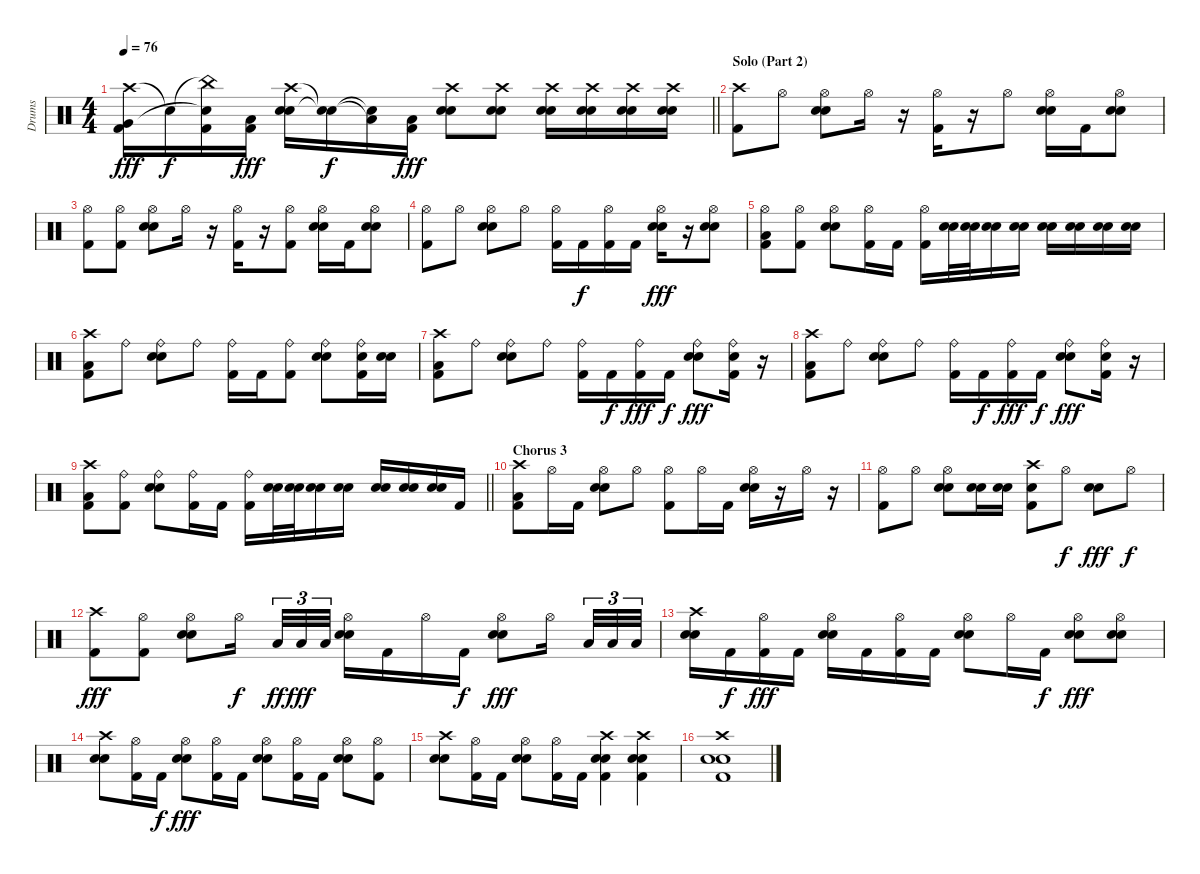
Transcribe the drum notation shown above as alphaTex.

\track ("Drums" "Drums") {instrument percussion}
\staff {score}
\articulation defaults
\ts (4 4)
\tempo 76
\clef neutral
\barLineRight lightlight
\ks c
("Crash high (hit)" "Very Low Tom (hit)" "Kick (hit) 2").16{dy fff} "Snare (hit)"{t}.16{dy f} ("China (hit)"{t} "Snare (hit)"{t} "Kick (hit) 2").16 ("Low Floor Tom (hit)" "Kick (hit) 2").16{dy fff} ("Crash high (hit)" "Snare (hit) 2" "Electric Snare (hit)").16 ("Snare (hit)"{t} "Snare (hit)"{t}).16{dy f} ("Snare (hit)"{t} "Low Floor Tom (hit)"{t}).16 ("Low Floor Tom (hit)" "Kick (hit) 2").16{dy fff} ("Crash high (hit)" "Snare (hit) 2" "Electric Snare (hit)").8 ("Crash high (hit)" "Snare (hit) 2" "Electric Snare (hit)").8 ("Crash high (hit)" "Snare (hit) 2" "Electric Snare (hit)").16 ("Crash high (hit)" "Snare (hit) 2" "Electric Snare (hit)").16 ("Crash high (hit)" "Snare (hit) 2" "Electric Snare (hit)").16 ("Crash high (hit)" "Snare (hit) 2" "Electric Snare (hit)").16 |
\section ("" "Solo (Part 2)")
("Crash high (hit)" "Kick (hit) 2").8 "Hi-Hat (open)".8 ("Hi-Hat (open)" "Snare (hit) 2" "Electric Snare (hit)").8 "Hi-Hat (open)".16 r.16 ("Hi-Hat (open)" "Kick (hit) 2").16 r.16 "Hi-Hat (open)".8 ("Hi-Hat (open)" "Snare (hit) 2" "Electric Snare (hit)").16 "Kick (hit) 2".16 ("Hi-Hat (open)" "Snare (hit) 2" "Electric Snare (hit)").8 |
("Hi-Hat (open)" "Kick (hit) 2").8 ("Hi-Hat (open)" "Kick (hit) 2").8 ("Hi-Hat (open)" "Snare (hit) 2" "Electric Snare (hit)").8 "Hi-Hat (open)".16 r.16 ("Hi-Hat (open)" "Kick (hit) 2").16 r.16 ("Hi-Hat (open)" "Kick (hit) 2").8 ("Hi-Hat (open)" "Snare (hit) 2" "Electric Snare (hit)").16 "Kick (hit) 2".16 ("Hi-Hat (open)" "Snare (hit) 2" "Electric Snare (hit)").8 |
("Hi-Hat (open)" "Kick (hit) 2").8 "Hi-Hat (open)".8 ("Hi-Hat (open)" "Snare (hit) 2" "Electric Snare (hit)").8 "Hi-Hat (open)".8 ("Hi-Hat (open)" "Kick (hit) 2").16 "Kick (hit) 2".16{dy f} ("Hi-Hat (open)" "Kick (hit) 2").16 "Kick (hit) 2".16 ("Hi-Hat (open)" "Snare (hit) 2" "Electric Snare (hit)").16{dy fff} r.16 ("Hi-Hat (open)" "Snare (hit) 2" "Electric Snare (hit)").8 |
("Hi-Hat (open)" "Low Floor Tom (hit)" "Kick (hit) 2").8 ("Hi-Hat (open)" "Kick (hit) 2").8 ("Hi-Hat (open)" "Snare (hit) 2" "Electric Snare (hit)").8 ("Hi-Hat (open)" "Kick (hit) 2").16 "Kick (hit) 2".16 ("Hi-Hat (open)" "Kick (hit) 2").16 ("Snare (hit) 2" "Electric Snare (hit)").32 ("Snare (hit) 2" "Electric Snare (hit)").32 ("Snare (hit) 2" "Electric Snare (hit)").16 ("Snare (hit) 2" "Electric Snare (hit)").16 ("Snare (hit) 2" "Electric Snare (hit)").16 ("Snare (hit) 2" "Electric Snare (hit)").16 ("Snare (hit) 2" "Electric Snare (hit)").16 ("Snare (hit) 2" "Electric Snare (hit)").16 |
("Crash high (hit)" "Low Floor Tom (hit)" "Kick (hit) 2").8 "Ride (bell)".8 ("Ride (bell)" "Snare (hit) 2" "Electric Snare (hit)").8 "Ride (bell)".8 ("Ride (bell)" "Kick (hit) 2").16 "Kick (hit) 2".16 ("Ride (bell)" "Kick (hit) 2").8 ("Ride (bell)" "Snare (hit) 2" "Electric Snare (hit)").8 ("Ride (bell)" "Snare (hit) 2" "Kick (hit) 2").16 ("Snare (hit) 2" "Electric Snare (hit)").16 |
("Crash high (hit)" "Low Floor Tom (hit)" "Kick (hit) 2").8 "Ride (bell)".8 ("Ride (bell)" "Snare (hit) 2" "Electric Snare (hit)").8 "Ride (bell)".8 ("Ride (bell)" "Kick (hit) 2").16 "Kick (hit) 2".16{dy f} ("Ride (bell)" "Kick (hit) 2").16{dy fff} "Kick (hit) 2".16{dy f} ("Ride (bell)" "Snare (hit) 2" "Electric Snare (hit)").8{dy fff} ("Ride (bell)" "Snare (hit) 2" "Kick (hit) 2").16 r.16 |
("Crash high (hit)" "Low Floor Tom (hit)" "Kick (hit) 2").8 "Ride (bell)".8 ("Ride (bell)" "Snare (hit) 2" "Electric Snare (hit)").8 "Ride (bell)".8 ("Ride (bell)" "Kick (hit) 2").16 "Kick (hit) 2".16{dy f} ("Ride (bell)" "Kick (hit) 2").16{dy fff} "Kick (hit) 2".16{dy f} ("Ride (bell)" "Snare (hit) 2" "Electric Snare (hit)").8{dy fff} ("Ride (bell)" "Snare (hit) 2" "Kick (hit) 2").16 r.16 |
\barLineRight lightlight
("Crash high (hit)" "Low Floor Tom (hit)" "Kick (hit) 2").8 ("Ride (bell)" "Kick (hit) 2").8 ("Ride (bell)" "Snare (hit) 2" "Electric Snare (hit)").8 ("Ride (bell)" "Kick (hit) 2").16 "Kick (hit) 2".16 ("Ride (bell)" "Kick (hit) 2").16 ("Snare (hit) 2" "Electric Snare (hit)").32 ("Snare (hit) 2" "Electric Snare (hit)").32 ("Snare (hit) 2" "Electric Snare (hit)").16 ("Snare (hit) 2" "Electric Snare (hit)").16 ("Snare (hit) 2" "Electric Snare (hit)").16 ("Snare (hit) 2" "Electric Snare (hit)").16 ("Snare (hit) 2" "Electric Snare (hit)").16 "Kick (hit) 2".16 |
\section ("" "Chorus 3")
("Crash high (hit)" "Low Floor Tom (hit)" "Kick (hit) 2").8 "Hi-Hat (open)".16 "Kick (hit) 2".16 ("Hi-Hat (open)" "Snare (hit) 2" "Electric Snare (hit)").8 "Hi-Hat (open)".8 ("Hi-Hat (open)" "Kick (hit) 2").8 "Hi-Hat (open)".16 "Kick (hit) 2".16 ("Hi-Hat (open)" "Snare (hit) 2" "Electric Snare (hit)").16 r.16 "Hi-Hat (open)".16 r.16 |
("Hi-Hat (open)" "Kick (hit) 2").8 "Hi-Hat (open)".8 ("Hi-Hat (open)" "Snare (hit) 2" "Electric Snare (hit)").8 ("Snare (hit) 2" "Electric Snare (hit)").16 ("Snare (hit) 2" "Electric Snare (hit)").16 ("Crash high (hit)" "Snare (hit) 2" "Kick (hit) 2").8 "Hi-Hat (open)".8{dy f} ("Snare (hit) 2" "Electric Snare (hit)").8{dy fff} "Hi-Hat (open)".8{dy f} |
("Crash high (hit)" "Kick (hit) 2").8{dy fff} ("Hi-Hat (open)" "Kick (hit) 2").8 ("Hi-Hat (open)" "Snare (hit) 2" "Electric Snare (hit)").8 "Hi-Hat (open)".16{dy f beam splitsecondary} "Low Floor Tom (hit)".32{tu (3 2) dy ff} "Low Floor Tom (hit)".32{tu (3 2) dy fff} "Low Floor Tom (hit)".32{tu (3 2)} ("Hi-Hat (open)" "Snare (hit) 2" "Electric Snare (hit)").16 "Kick (hit) 2".16 "Hi-Hat (open)".16 "Kick (hit) 2".16{dy f} ("Hi-Hat (open)" "Snare (hit) 2" "Electric Snare (hit)").8{dy fff} "Hi-Hat (open)".16{beam splitsecondary} "Low Floor Tom (hit)".32{tu (3 2)} "Low Floor Tom (hit)".32{tu (3 2)} "Low Floor Tom (hit)".32{tu (3 2)} |
("Crash high (hit)" "Snare (hit) 2" "Electric Snare (hit)").16 "Kick (hit) 2".16{dy f} ("Hi-Hat (open)" "Kick (hit) 2").16{dy fff} "Kick (hit) 2".16 ("Hi-Hat (open)" "Snare (hit) 2" "Electric Snare (hit)").16 "Kick (hit) 2".16 ("Hi-Hat (open)" "Kick (hit) 2").16 "Kick (hit) 2".16 ("Hi-Hat (open)" "Snare (hit) 2" "Electric Snare (hit)").8 "Hi-Hat (open)".16 "Kick (hit) 2".16{dy f} ("Hi-Hat (open)" "Snare (hit) 2" "Electric Snare (hit)").8{dy fff} ("Hi-Hat (open)" "Snare (hit) 2" "Electric Snare (hit)").8 |
("Crash high (hit)" "Electric Snare (hit)" "Snare (hit) 2").8 ("Hi-Hat (open)" "Kick (hit) 2").16 "Kick (hit) 2".16{dy f} ("Hi-Hat (open)" "Snare (hit) 2" "Electric Snare (hit)").8{dy fff} ("Hi-Hat (open)" "Kick (hit) 2").16 "Kick (hit) 2".16 ("Hi-Hat (open)" "Electric Snare (hit)" "Snare (hit) 2").8 ("Hi-Hat (open)" "Kick (hit) 2").16 "Kick (hit) 2".16 ("Hi-Hat (open)" "Snare (hit) 2" "Electric Snare (hit)").8 ("Hi-Hat (open)" "Kick (hit) 2").8 |
("Crash high (hit)" "Electric Snare (hit)" "Snare (hit) 2").8 ("Hi-Hat (open)" "Kick (hit) 2").16 "Kick (hit) 2".16 ("Hi-Hat (open)" "Snare (hit) 2" "Electric Snare (hit)").8 ("Hi-Hat (open)" "Kick (hit) 2").16 "Kick (hit) 2".16 ("Crash high (hit)" "Snare (hit) 2" "Electric Snare (hit)" "Kick (hit) 2").4 ("Crash high (hit)" "Kick (hit) 2" "Snare (hit) 2" "Electric Snare (hit)").4 |
("Crash high (hit)" "Snare (hit) 2" "Electric Snare (hit)" "Kick (hit) 2").1
